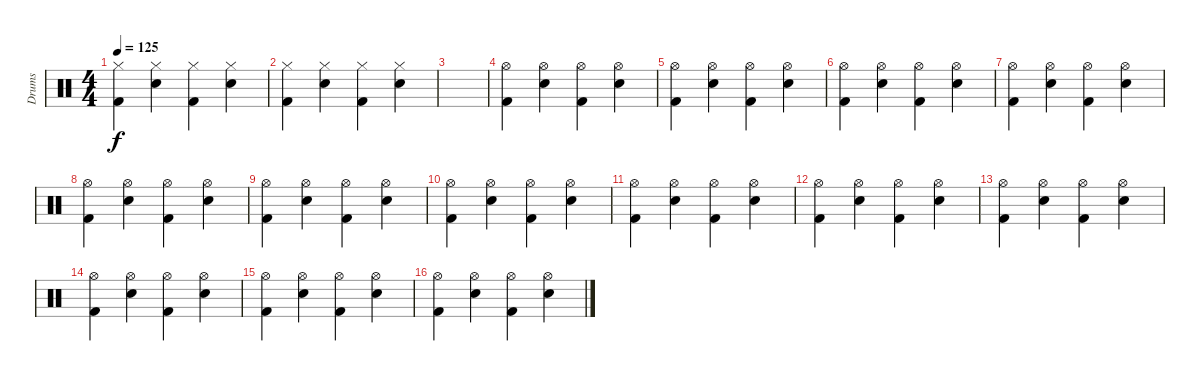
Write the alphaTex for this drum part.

\track ("Drums" "Drums") {instrument percussion}
\staff {score}
\articulation defaults
\ts (4 4)
\tempo 125
\clef neutral
\ks c
("Hi-Hat (closed)" "Kick (hit) 2").4{dy f} ("Hi-Hat (closed)" "Snare (hit) 2").4 ("Hi-Hat (closed)" "Kick (hit) 2").4 ("Hi-Hat (closed)" "Snare (hit) 2").4 |
("Hi-Hat (closed)" "Kick (hit) 2").4 ("Hi-Hat (closed)" "Snare (hit) 2").4 ("Hi-Hat (closed)" "Kick (hit) 2").4 ("Hi-Hat (closed)" "Snare (hit) 2").4 |
|
("Hi-Hat (open)" "Kick (hit) 2").4 ("Hi-Hat (open)" "Snare (hit) 2").4 ("Hi-Hat (open)" "Kick (hit) 2").4 ("Hi-Hat (open)" "Snare (hit) 2").4 |
("Hi-Hat (open)" "Kick (hit) 2").4 ("Hi-Hat (open)" "Snare (hit) 2").4 ("Hi-Hat (open)" "Kick (hit) 2").4 ("Hi-Hat (open)" "Snare (hit) 2").4 |
("Hi-Hat (open)" "Kick (hit) 2").4 ("Hi-Hat (open)" "Snare (hit) 2").4 ("Hi-Hat (open)" "Kick (hit) 2").4 ("Hi-Hat (open)" "Snare (hit) 2").4 |
("Hi-Hat (open)" "Kick (hit) 2").4 ("Hi-Hat (open)" "Snare (hit) 2").4 ("Hi-Hat (open)" "Kick (hit) 2").4 ("Hi-Hat (open)" "Snare (hit) 2").4 |
("Hi-Hat (open)" "Kick (hit) 2").4 ("Hi-Hat (open)" "Snare (hit) 2").4 ("Hi-Hat (open)" "Kick (hit) 2").4 ("Hi-Hat (open)" "Snare (hit) 2").4 |
("Hi-Hat (open)" "Kick (hit) 2").4 ("Hi-Hat (open)" "Snare (hit) 2").4 ("Hi-Hat (open)" "Kick (hit) 2").4 ("Hi-Hat (open)" "Snare (hit) 2").4 |
("Hi-Hat (open)" "Kick (hit) 2").4 ("Hi-Hat (open)" "Snare (hit) 2").4 ("Hi-Hat (open)" "Kick (hit) 2").4 ("Hi-Hat (open)" "Snare (hit) 2").4 |
("Hi-Hat (open)" "Kick (hit) 2").4 ("Hi-Hat (open)" "Snare (hit) 2").4 ("Hi-Hat (open)" "Kick (hit) 2").4 ("Hi-Hat (open)" "Snare (hit) 2").4 |
("Hi-Hat (open)" "Kick (hit) 2").4 ("Hi-Hat (open)" "Snare (hit) 2").4 ("Hi-Hat (open)" "Kick (hit) 2").4 ("Hi-Hat (open)" "Snare (hit) 2").4 |
("Hi-Hat (open)" "Kick (hit) 2").4 ("Hi-Hat (open)" "Snare (hit) 2").4 ("Hi-Hat (open)" "Kick (hit) 2").4 ("Hi-Hat (open)" "Snare (hit) 2").4 |
("Hi-Hat (open)" "Kick (hit) 2").4 ("Hi-Hat (open)" "Snare (hit) 2").4 ("Hi-Hat (open)" "Kick (hit) 2").4 ("Hi-Hat (open)" "Snare (hit) 2").4 |
("Hi-Hat (open)" "Kick (hit) 2").4 ("Hi-Hat (open)" "Snare (hit) 2").4 ("Hi-Hat (open)" "Kick (hit) 2").4 ("Hi-Hat (open)" "Snare (hit) 2").4 |
("Hi-Hat (open)" "Kick (hit) 2").4 ("Hi-Hat (open)" "Snare (hit) 2").4 ("Hi-Hat (open)" "Kick (hit) 2").4 ("Hi-Hat (open)" "Snare (hit) 2").4
